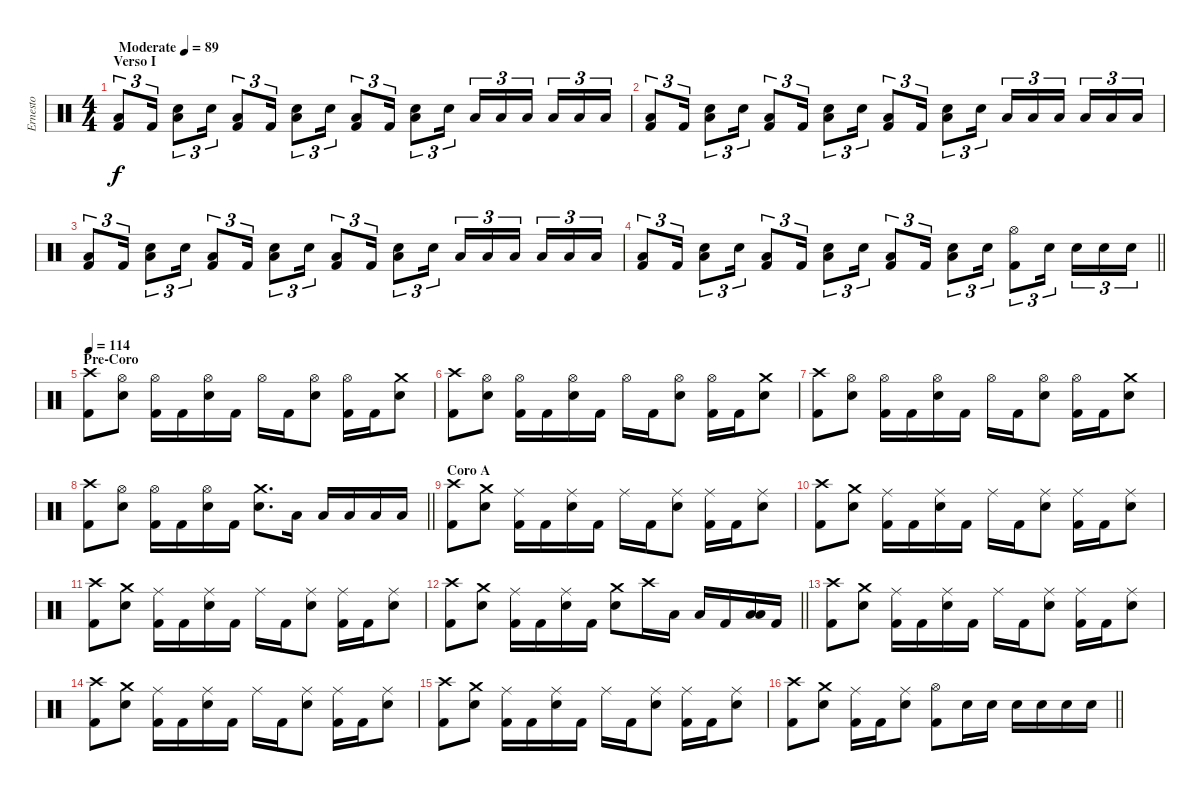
\track ("Ernesto" "Ernesto") {instrument percussion}
\staff
\articulation defaults
\ts (4 4)
\section ("" "Verso I")
\tempo (89 "Moderate")
\clef neutral
\ks c
("Low Floor Tom (hit)" "Kick (hit) 2").8{tu (3 2) dy f} "Kick (hit) 2".16{tu (3 2)} ("Electric Snare (hit)" "Low Floor Tom (hit)").8{tu (3 2)} "Electric Snare (hit)".16{tu (3 2)} ("Low Floor Tom (hit)" "Kick (hit) 2").8{tu (3 2)} "Kick (hit) 2".16{tu (3 2)} ("Electric Snare (hit)" "Low Floor Tom (hit)").8{tu (3 2)} "Electric Snare (hit)".16{tu (3 2)} ("Low Floor Tom (hit)" "Kick (hit) 2").8{tu (3 2)} "Kick (hit) 2".16{tu (3 2)} ("Electric Snare (hit)" "Low Floor Tom (hit)").8{tu (3 2)} "Electric Snare (hit)".16{tu (3 2)} "Low Tom (hit)".16{tu (3 2)} "Low Tom (hit)".16{tu (3 2)} "Low Tom (hit)".16{tu (3 2) beam splitsecondary} "Low Tom (hit)".16{tu (3 2)} "Low Floor Tom (hit)".16{tu (3 2)} "Low Floor Tom (hit)".16{tu (3 2)} |
("Low Floor Tom (hit)" "Kick (hit) 2").8{tu (3 2)} "Kick (hit) 2".16{tu (3 2)} ("Electric Snare (hit)" "Low Floor Tom (hit)").8{tu (3 2)} "Electric Snare (hit)".16{tu (3 2)} ("Low Floor Tom (hit)" "Kick (hit) 2").8{tu (3 2)} "Kick (hit) 2".16{tu (3 2)} ("Electric Snare (hit)" "Low Floor Tom (hit)").8{tu (3 2)} "Electric Snare (hit)".16{tu (3 2)} ("Low Floor Tom (hit)" "Kick (hit) 2").8{tu (3 2)} "Kick (hit) 2".16{tu (3 2)} ("Electric Snare (hit)" "Low Floor Tom (hit)").8{tu (3 2)} "Electric Snare (hit)".16{tu (3 2)} "Low Tom (hit)".16{tu (3 2)} "Low Tom (hit)".16{tu (3 2)} "Low Tom (hit)".16{tu (3 2) beam splitsecondary} "Low Tom (hit)".16{tu (3 2)} "Low Floor Tom (hit)".16{tu (3 2)} "Low Floor Tom (hit)".16{tu (3 2)} |
("Low Floor Tom (hit)" "Kick (hit) 2").8{tu (3 2)} "Kick (hit) 2".16{tu (3 2)} ("Electric Snare (hit)" "Low Floor Tom (hit)").8{tu (3 2)} "Electric Snare (hit)".16{tu (3 2)} ("Low Floor Tom (hit)" "Kick (hit) 2").8{tu (3 2)} "Kick (hit) 2".16{tu (3 2)} ("Electric Snare (hit)" "Low Floor Tom (hit)").8{tu (3 2)} "Electric Snare (hit)".16{tu (3 2)} ("Low Floor Tom (hit)" "Kick (hit) 2").8{tu (3 2)} "Kick (hit) 2".16{tu (3 2)} ("Electric Snare (hit)" "Low Floor Tom (hit)").8{tu (3 2)} "Electric Snare (hit)".16{tu (3 2)} "Low Tom (hit)".16{tu (3 2)} "Low Tom (hit)".16{tu (3 2)} "Low Tom (hit)".16{tu (3 2) beam splitsecondary} "Low Tom (hit)".16{tu (3 2)} "Low Floor Tom (hit)".16{tu (3 2)} "Low Floor Tom (hit)".16{tu (3 2)} |
\barLineRight lightlight
("Low Floor Tom (hit)" "Kick (hit) 2").8{tu (3 2)} "Kick (hit) 2".16{tu (3 2)} ("Electric Snare (hit)" "Low Floor Tom (hit)").8{tu (3 2)} "Electric Snare (hit)".16{tu (3 2)} ("Low Floor Tom (hit)" "Kick (hit) 2").8{tu (3 2)} "Kick (hit) 2".16{tu (3 2)} ("Electric Snare (hit)" "Low Floor Tom (hit)").8{tu (3 2)} "Electric Snare (hit)".16{tu (3 2)} ("Low Floor Tom (hit)" "Kick (hit) 2").8{tu (3 2)} "Kick (hit) 2".16{tu (3 2)} ("Electric Snare (hit)" "Low Floor Tom (hit)").8{tu (3 2)} "Electric Snare (hit)".16{tu (3 2)} ("Hi-Hat (open)" "Kick (hit) 2").8{tu (3 2)} "Electric Snare (hit)".16{tu (3 2) beam splitsecondary} "Electric Snare (hit)".16{tu (3 2)} "Electric Snare (hit)".16{tu (3 2)} "Electric Snare (hit)".16{tu (3 2)} |
\section ("" "Pre-Coro")
\tempo 114
("Crash high (hit)" "Kick (hit) 2").8 ("Hi-Hat (open)" "Electric Snare (hit)").8 ("Hi-Hat (open)" "Kick (hit) 2").16 "Kick (hit) 2".16 ("Hi-Hat (open)" "Electric Snare (hit)").16 "Kick (hit) 2".16 "Hi-Hat (open)".16 "Kick (hit) 2".16 ("Hi-Hat (open)" "Electric Snare (hit)").8 ("Hi-Hat (open)" "Kick (hit) 2").16 "Kick (hit) 2".16 ("Crash medium (hit)" "Electric Snare (hit)").8 |
("Crash high (hit)" "Kick (hit) 2").8 ("Hi-Hat (open)" "Electric Snare (hit)").8 ("Hi-Hat (open)" "Kick (hit) 2").16 "Kick (hit) 2".16 ("Hi-Hat (open)" "Electric Snare (hit)").16 "Kick (hit) 2".16 "Hi-Hat (open)".16 "Kick (hit) 2".16 ("Hi-Hat (open)" "Electric Snare (hit)").8 ("Hi-Hat (open)" "Kick (hit) 2").16 "Kick (hit) 2".16 ("Crash medium (hit)" "Electric Snare (hit)").8 |
("Crash high (hit)" "Kick (hit) 2").8 ("Hi-Hat (open)" "Electric Snare (hit)").8 ("Hi-Hat (open)" "Kick (hit) 2").16 "Kick (hit) 2".16 ("Hi-Hat (open)" "Electric Snare (hit)").16 "Kick (hit) 2".16 "Hi-Hat (open)".16 "Kick (hit) 2".16 ("Hi-Hat (open)" "Electric Snare (hit)").8 ("Hi-Hat (open)" "Kick (hit) 2").16 "Kick (hit) 2".16 ("Crash medium (hit)" "Electric Snare (hit)").8 |
\barLineRight lightlight
("Crash high (hit)" "Kick (hit) 2").8 ("Hi-Hat (open)" "Electric Snare (hit)").8 ("Hi-Hat (open)" "Kick (hit) 2").16 "Kick (hit) 2".16 ("Hi-Hat (open)" "Electric Snare (hit)").16 "Kick (hit) 2".16 ("Crash medium (hit)" "Electric Snare (hit)").8{d} "Low Tom (hit)".16 "Low Tom (hit)".16 "Low Tom (hit)".16 "Low Floor Tom (hit)".16 "Low Floor Tom (hit)".16 |
\section ("" "Coro A")
("Crash high (hit)" "Kick (hit) 2").8 ("Crash medium (hit)" "Electric Snare (hit)").8 ("Ride (middle)" "Kick (hit) 2").16 "Kick (hit) 2".16 ("Ride (middle)" "Electric Snare (hit)").16 "Kick (hit) 2".16 "Ride (middle)".16 "Kick (hit) 2".16 ("Ride (middle)" "Electric Snare (hit)").8 ("Ride (middle)" "Kick (hit) 2").16 "Kick (hit) 2".16 ("Ride (middle)" "Electric Snare (hit)").8 |
("Crash high (hit)" "Kick (hit) 2").8 ("Crash medium (hit)" "Electric Snare (hit)").8 ("Ride (middle)" "Kick (hit) 2").16 "Kick (hit) 2".16 ("Ride (middle)" "Electric Snare (hit)").16 "Kick (hit) 2".16 "Ride (middle)".16 "Kick (hit) 2".16 ("Ride (middle)" "Electric Snare (hit)").8 ("Ride (middle)" "Kick (hit) 2").16 "Kick (hit) 2".16 ("Ride (middle)" "Electric Snare (hit)").8 |
("Crash high (hit)" "Kick (hit) 2").8 ("Crash medium (hit)" "Electric Snare (hit)").8 ("Ride (middle)" "Kick (hit) 2").16 "Kick (hit) 2".16 ("Ride (middle)" "Electric Snare (hit)").16 "Kick (hit) 2".16 "Ride (middle)".16 "Kick (hit) 2".16 ("Ride (middle)" "Electric Snare (hit)").8 ("Ride (middle)" "Kick (hit) 2").16 "Kick (hit) 2".16 ("Ride (middle)" "Electric Snare (hit)").8 |
\barLineRight lightlight
("Crash high (hit)" "Kick (hit) 2").8 ("Crash medium (hit)" "Electric Snare (hit)").8 ("Ride (middle)" "Kick (hit) 2").16 "Kick (hit) 2".16 ("Ride (middle)" "Electric Snare (hit)").16 "Kick (hit) 2".16 ("Crash medium (hit)" "Electric Snare (hit)").8 "Crash high (hit)".16 "Low Tom (hit)".16 "Low Floor Tom (hit)".16 "Kick (hit) 2".16 ("Low Tom (hit)" "Low Floor Tom (hit)").16 "Kick (hit) 2".16 |
("Crash high (hit)" "Kick (hit) 2").8 ("Crash medium (hit)" "Electric Snare (hit)").8 ("Ride (middle)" "Kick (hit) 2").16 "Kick (hit) 2".16 ("Ride (middle)" "Electric Snare (hit)").16 "Kick (hit) 2".16 "Ride (middle)".16 "Kick (hit) 2".16 ("Ride (middle)" "Electric Snare (hit)").8 ("Ride (middle)" "Kick (hit) 2").16 "Kick (hit) 2".16 ("Ride (middle)" "Electric Snare (hit)").8 |
("Crash high (hit)" "Kick (hit) 2").8 ("Crash medium (hit)" "Electric Snare (hit)").8 ("Ride (middle)" "Kick (hit) 2").16 "Kick (hit) 2".16 ("Ride (middle)" "Electric Snare (hit)").16 "Kick (hit) 2".16 "Ride (middle)".16 "Kick (hit) 2".16 ("Ride (middle)" "Electric Snare (hit)").8 ("Ride (middle)" "Kick (hit) 2").16 "Kick (hit) 2".16 ("Ride (middle)" "Electric Snare (hit)").8 |
("Crash high (hit)" "Kick (hit) 2").8 ("Crash medium (hit)" "Electric Snare (hit)").8 ("Ride (middle)" "Kick (hit) 2").16 "Kick (hit) 2".16 ("Ride (middle)" "Electric Snare (hit)").16 "Kick (hit) 2".16 "Ride (middle)".16 "Kick (hit) 2".16 ("Ride (middle)" "Electric Snare (hit)").8 ("Ride (middle)" "Kick (hit) 2").16 "Kick (hit) 2".16 ("Ride (middle)" "Electric Snare (hit)").8 |
\barLineRight lightlight
("Crash high (hit)" "Kick (hit) 2").8 ("Crash medium (hit)" "Electric Snare (hit)").8 ("Ride (middle)" "Kick (hit) 2").16 "Kick (hit) 2".16 ("Ride (middle)" "Electric Snare (hit)").8 ("Hi-Hat (open)" "Kick (hit) 2").8 "Electric Snare (hit)".16 "Electric Snare (hit)".16 "Electric Snare (hit)".16 "Electric Snare (hit)".16 "Electric Snare (hit)".16 "Electric Snare (hit)".16
